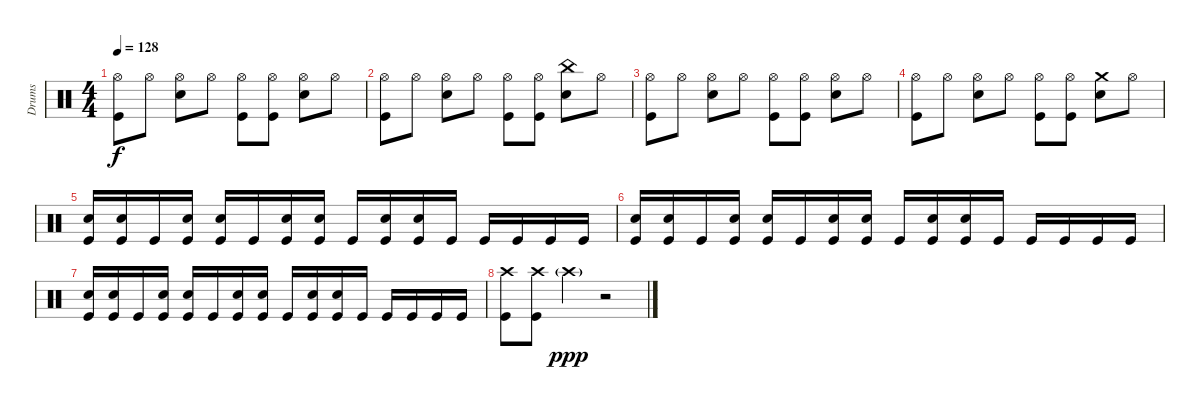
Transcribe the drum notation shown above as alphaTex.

\track ("Drums" "Drums") {instrument percussion}
\staff {score}
\articulation defaults
\ts (4 4)
\tempo 128
\clef neutral
\ks c
("Hi-Hat (open)" "Kick (hit)").8{dy f} "Hi-Hat (open)".8 ("Hi-Hat (open)" "Snare (hit) 2").8 "Hi-Hat (open)".8 ("Hi-Hat (open)" "Kick (hit)").8 ("Hi-Hat (open)" "Kick (hit)").8 ("Hi-Hat (open)" "Snare (hit) 2").8 "Hi-Hat (open)".8 |
("Hi-Hat (open)" "Kick (hit)").8 "Hi-Hat (open)".8 ("Hi-Hat (open)" "Snare (hit) 2").8 "Hi-Hat (open)".8 ("Hi-Hat (open)" "Kick (hit)").8 ("Hi-Hat (open)" "Kick (hit)").8 ("China (hit)" "Snare (hit) 2").8 "Hi-Hat (open)".8 |
("Hi-Hat (open)" "Kick (hit)").8 "Hi-Hat (open)".8 ("Hi-Hat (open)" "Snare (hit) 2").8 "Hi-Hat (open)".8 ("Hi-Hat (open)" "Kick (hit)").8 ("Hi-Hat (open)" "Kick (hit)").8 ("Hi-Hat (open)" "Snare (hit) 2").8 "Hi-Hat (open)".8 |
("Hi-Hat (open)" "Kick (hit)").8 "Hi-Hat (open)".8 ("Hi-Hat (open)" "Snare (hit) 2").8 "Hi-Hat (open)".8 ("Hi-Hat (open)" "Kick (hit)").8 ("Hi-Hat (open)" "Kick (hit)").8 ("Crash medium (hit)" "Snare (hit) 2").8 "Hi-Hat (open)".8 |
("Snare (hit) 2" "Kick (hit)").16 ("Snare (hit) 2" "Kick (hit)").16 "Kick (hit)".16 ("Snare (hit) 2" "Kick (hit)").16 ("Snare (hit) 2" "Kick (hit)").16 "Kick (hit)".16 ("Snare (hit) 2" "Kick (hit)").16 ("Snare (hit) 2" "Kick (hit)").16 "Kick (hit)".16 ("Snare (hit) 2" "Kick (hit)").16 ("Snare (hit) 2" "Kick (hit)").16 "Kick (hit)".16 "Kick (hit)".16 "Kick (hit)".16 "Kick (hit)".16 "Kick (hit)".16 |
("Snare (hit) 2" "Kick (hit)").16 ("Snare (hit) 2" "Kick (hit)").16 "Kick (hit)".16 ("Snare (hit) 2" "Kick (hit)").16 ("Snare (hit) 2" "Kick (hit)").16 "Kick (hit)".16 ("Snare (hit) 2" "Kick (hit)").16 ("Snare (hit) 2" "Kick (hit)").16 "Kick (hit)".16 ("Snare (hit) 2" "Kick (hit)").16 ("Snare (hit) 2" "Kick (hit)").16 "Kick (hit)".16 "Kick (hit)".16 "Kick (hit)".16 "Kick (hit)".16 "Kick (hit)".16 |
("Snare (hit) 2" "Kick (hit)").16 ("Snare (hit) 2" "Kick (hit)").16 "Kick (hit)".16 ("Snare (hit) 2" "Kick (hit)").16 ("Snare (hit) 2" "Kick (hit)").16 "Kick (hit)".16 ("Snare (hit) 2" "Kick (hit)").16 ("Snare (hit) 2" "Kick (hit)").16 "Kick (hit)".16 ("Snare (hit) 2" "Kick (hit)").16 ("Snare (hit) 2" "Kick (hit)").16 "Kick (hit)".16 "Kick (hit)".16 "Kick (hit)".16 "Kick (hit)".16 "Kick (hit)".16 |
("Crash high (hit)" "Kick (hit)").8 ("Crash high (hit)" "Kick (hit)").8 "Crash high (hit)"{g}.4{dy ppp} r.2
